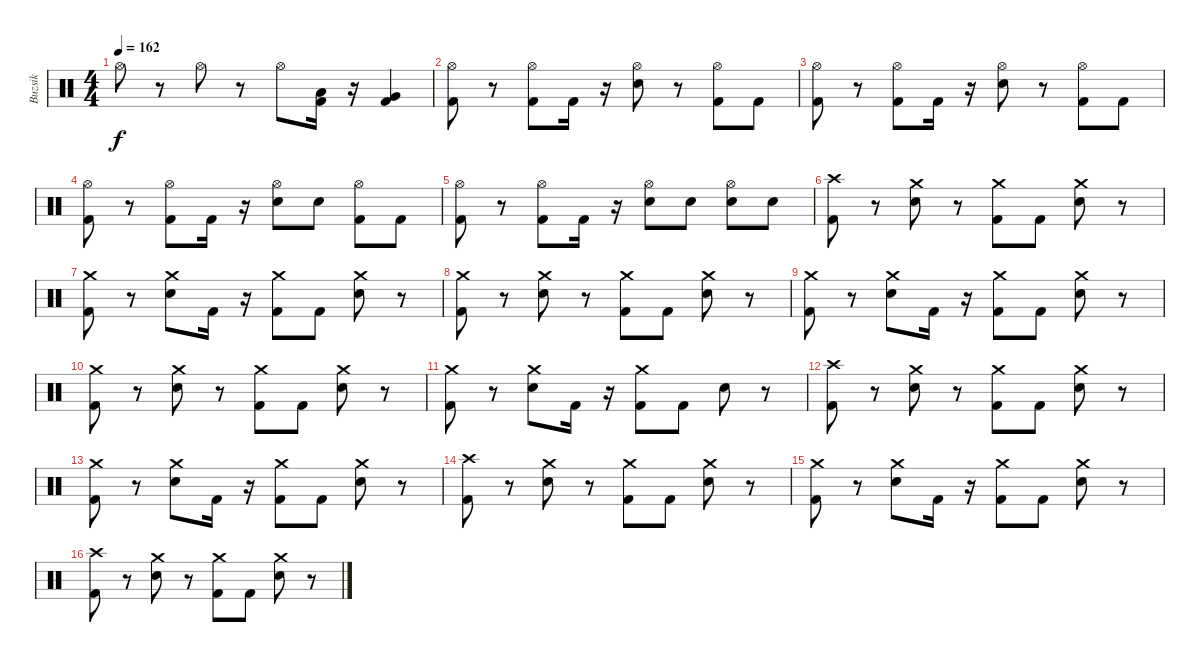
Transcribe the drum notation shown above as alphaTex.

\track ("Buzsik" "Buzsik") {instrument percussion}
\staff {score}
\articulation defaults
\ts (4 4)
\tempo 162
\clef neutral
\ks c "Hi-Hat (open)".8{dy f}
r.8 "Hi-Hat (open)".8 r.8 "Hi-Hat (open)".8 ("Kick (hit) 2" "Low Tom (hit)").16 r.16 ("Kick (hit) 2" "Very Low Tom (hit)").4 |
("Hi-Hat (open)" "Kick (hit) 2").8 r.8 ("Hi-Hat (open)" "Kick (hit) 2").8 "Kick (hit) 2".16 r.16 ("Hi-Hat (open)" "Electric Snare (hit)").8 r.8 ("Hi-Hat (open)" "Kick (hit) 2").8 "Kick (hit) 2".8 |
("Hi-Hat (open)" "Kick (hit) 2").8 r.8 ("Hi-Hat (open)" "Kick (hit) 2").8 "Kick (hit) 2".16 r.16 ("Hi-Hat (open)" "Electric Snare (hit)").8 r.8 ("Hi-Hat (open)" "Kick (hit) 2").8 "Kick (hit) 2".8 |
("Hi-Hat (open)" "Kick (hit) 2").8 r.8 ("Hi-Hat (open)" "Kick (hit) 2").8 "Kick (hit) 2".16 r.16 ("Hi-Hat (open)" "Electric Snare (hit)").8 "Electric Snare (hit)".8 ("Hi-Hat (open)" "Kick (hit) 2").8 "Kick (hit) 2".8 |
("Hi-Hat (open)" "Kick (hit) 2").8 r.8 ("Hi-Hat (open)" "Kick (hit) 2").8 "Kick (hit) 2".16 r.16 ("Hi-Hat (open)" "Electric Snare (hit)").8 "Electric Snare (hit)".8 ("Hi-Hat (open)" "Electric Snare (hit)").8 "Electric Snare (hit)".8 |
("Crash high (hit)" "Kick (hit) 2").8 r.8 ("Crash medium (hit)" "Electric Snare (hit)").8 r.8 ("Crash medium (hit)" "Kick (hit) 2").8 "Kick (hit) 2".8 ("Crash medium (hit)" "Electric Snare (hit)").8 r.8 |
("Crash medium (hit)" "Kick (hit) 2").8 r.8 ("Crash medium (hit)" "Electric Snare (hit)").8 "Kick (hit) 2".16 r.16 ("Crash medium (hit)" "Kick (hit) 2").8 "Kick (hit) 2".8 ("Crash medium (hit)" "Electric Snare (hit)").8 r.8 |
("Crash medium (hit)" "Kick (hit) 2").8 r.8 ("Crash medium (hit)" "Electric Snare (hit)").8 r.8 ("Crash medium (hit)" "Kick (hit) 2").8 "Kick (hit) 2".8 ("Crash medium (hit)" "Electric Snare (hit)").8 r.8 |
("Crash medium (hit)" "Kick (hit) 2").8 r.8 ("Crash medium (hit)" "Electric Snare (hit)").8 "Kick (hit) 2".16 r.16 ("Crash medium (hit)" "Kick (hit) 2").8 "Kick (hit) 2".8 ("Crash medium (hit)" "Electric Snare (hit)").8 r.8 |
("Crash medium (hit)" "Kick (hit) 2").8 r.8 ("Crash medium (hit)" "Electric Snare (hit)").8 r.8 ("Crash medium (hit)" "Kick (hit) 2").8 "Kick (hit) 2".8 ("Crash medium (hit)" "Electric Snare (hit)").8 r.8 |
("Crash medium (hit)" "Kick (hit) 2").8 r.8 ("Crash medium (hit)" "Electric Snare (hit)").8 "Kick (hit) 2".16 r.16 ("Crash medium (hit)" "Kick (hit) 2").8 "Kick (hit) 2".8 "Electric Snare (hit)".8 r.8 |
("Crash high (hit)" "Kick (hit) 2").8 r.8 ("Crash medium (hit)" "Electric Snare (hit)").8 r.8 ("Crash medium (hit)" "Kick (hit) 2").8 "Kick (hit) 2".8 ("Crash medium (hit)" "Electric Snare (hit)").8 r.8 |
("Crash medium (hit)" "Kick (hit) 2").8 r.8 ("Crash medium (hit)" "Electric Snare (hit)").8 "Kick (hit) 2".16 r.16 ("Crash medium (hit)" "Kick (hit) 2").8 "Kick (hit) 2".8 ("Crash medium (hit)" "Electric Snare (hit)").8 r.8 |
("Crash high (hit)" "Kick (hit) 2").8 r.8 ("Crash medium (hit)" "Electric Snare (hit)").8 r.8 ("Crash medium (hit)" "Kick (hit) 2").8 "Kick (hit) 2".8 ("Crash medium (hit)" "Electric Snare (hit)").8 r.8 |
("Crash medium (hit)" "Kick (hit) 2").8 r.8 ("Crash medium (hit)" "Electric Snare (hit)").8 "Kick (hit) 2".16 r.16 ("Crash medium (hit)" "Kick (hit) 2").8 "Kick (hit) 2".8 ("Crash medium (hit)" "Electric Snare (hit)").8 r.8 |
("Crash high (hit)" "Kick (hit) 2").8 r.8 ("Crash medium (hit)" "Electric Snare (hit)").8 r.8 ("Crash medium (hit)" "Kick (hit) 2").8 "Kick (hit) 2".8 ("Crash medium (hit)" "Electric Snare (hit)").8 r.8
